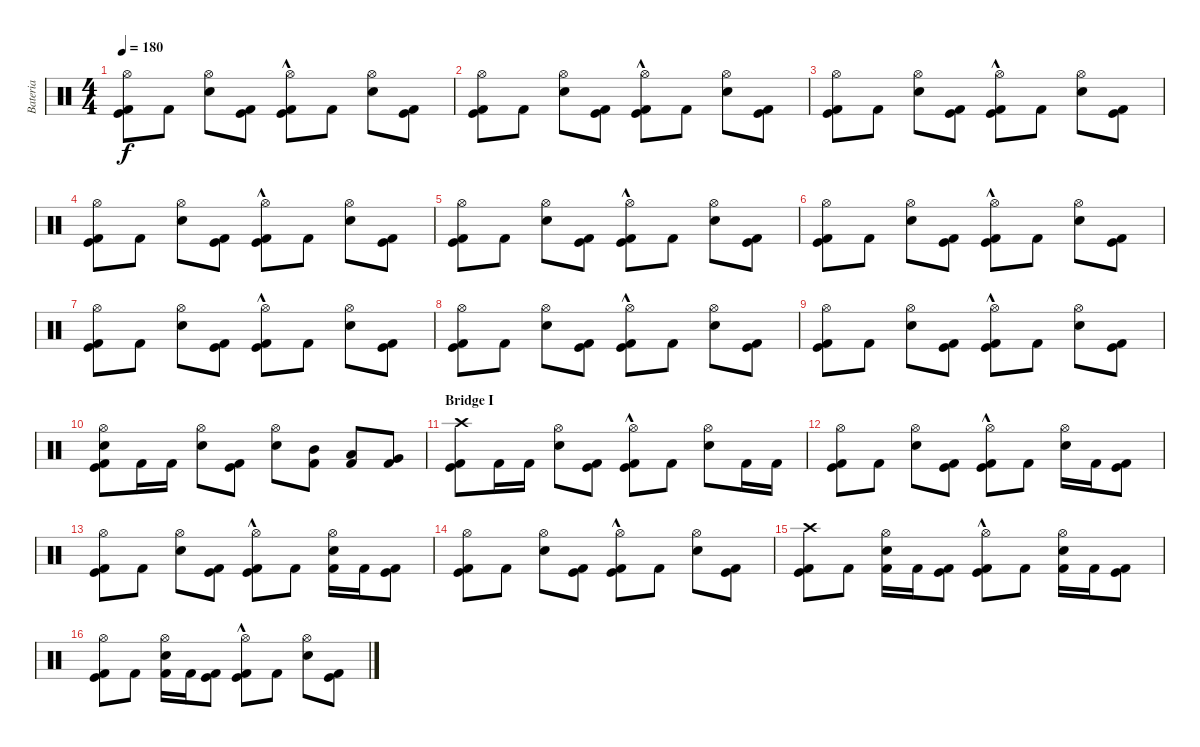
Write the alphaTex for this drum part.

\track ("Bateria" "Bateria") {instrument percussion}
\staff {score}
\articulation defaults
\ts (4 4)
\tempo 180
\clef neutral
\ks c
("Hi-Hat (open)" "Kick (hit)" "Kick (hit) 2").8{dy f} "Kick (hit) 2".8 ("Hi-Hat (open)" "Snare (hit) 2").8 ("Kick (hit)" "Kick (hit) 2").8 ("Hi-Hat (open)"{hac} "Kick (hit)" "Kick (hit) 2").8 "Kick (hit) 2".8 ("Hi-Hat (open)" "Snare (hit) 2").8 ("Kick (hit)" "Kick (hit) 2").8 |
("Hi-Hat (open)" "Kick (hit)" "Kick (hit) 2").8 "Kick (hit) 2".8 ("Hi-Hat (open)" "Snare (hit) 2").8 ("Kick (hit)" "Kick (hit) 2").8 ("Hi-Hat (open)"{hac} "Kick (hit)" "Kick (hit) 2").8 "Kick (hit) 2".8 ("Hi-Hat (open)" "Snare (hit) 2").8 ("Kick (hit)" "Kick (hit) 2").8 |
("Hi-Hat (open)" "Kick (hit)" "Kick (hit) 2").8 "Kick (hit) 2".8 ("Hi-Hat (open)" "Snare (hit) 2").8 ("Kick (hit)" "Kick (hit) 2").8 ("Hi-Hat (open)"{hac} "Kick (hit)" "Kick (hit) 2").8 "Kick (hit) 2".8 ("Hi-Hat (open)" "Snare (hit) 2").8 ("Kick (hit)" "Kick (hit) 2").8 |
("Hi-Hat (open)" "Kick (hit)" "Kick (hit) 2").8 "Kick (hit) 2".8 ("Hi-Hat (open)" "Snare (hit) 2").8 ("Kick (hit)" "Kick (hit) 2").8 ("Hi-Hat (open)"{hac} "Kick (hit)" "Kick (hit) 2").8 "Kick (hit) 2".8 ("Hi-Hat (open)" "Snare (hit) 2").8 ("Kick (hit)" "Kick (hit) 2").8 |
("Hi-Hat (open)" "Kick (hit)" "Kick (hit) 2").8 "Kick (hit) 2".8 ("Hi-Hat (open)" "Snare (hit) 2").8 ("Kick (hit)" "Kick (hit) 2").8 ("Hi-Hat (open)"{hac} "Kick (hit)" "Kick (hit) 2").8 "Kick (hit) 2".8 ("Hi-Hat (open)" "Snare (hit) 2").8 ("Kick (hit)" "Kick (hit) 2").8 |
("Hi-Hat (open)" "Kick (hit)" "Kick (hit) 2").8 "Kick (hit) 2".8 ("Hi-Hat (open)" "Snare (hit) 2").8 ("Kick (hit)" "Kick (hit) 2").8 ("Hi-Hat (open)"{hac} "Kick (hit)" "Kick (hit) 2").8 "Kick (hit) 2".8 ("Hi-Hat (open)" "Snare (hit) 2").8 ("Kick (hit)" "Kick (hit) 2").8 |
("Hi-Hat (open)" "Kick (hit)" "Kick (hit) 2").8 "Kick (hit) 2".8 ("Hi-Hat (open)" "Snare (hit) 2").8 ("Kick (hit)" "Kick (hit) 2").8 ("Hi-Hat (open)"{hac} "Kick (hit)" "Kick (hit) 2").8 "Kick (hit) 2".8 ("Hi-Hat (open)" "Snare (hit) 2").8 ("Kick (hit)" "Kick (hit) 2").8 |
("Hi-Hat (open)" "Kick (hit)" "Kick (hit) 2").8 "Kick (hit) 2".8 ("Hi-Hat (open)" "Snare (hit) 2").8 ("Kick (hit)" "Kick (hit) 2").8 ("Hi-Hat (open)"{hac} "Kick (hit)" "Kick (hit) 2").8 "Kick (hit) 2".8 ("Hi-Hat (open)" "Snare (hit) 2").8 ("Kick (hit)" "Kick (hit) 2").8 |
("Hi-Hat (open)" "Kick (hit)" "Kick (hit) 2").8 "Kick (hit) 2".8 ("Hi-Hat (open)" "Snare (hit) 2").8 ("Kick (hit)" "Kick (hit) 2").8 ("Hi-Hat (open)"{hac} "Kick (hit)" "Kick (hit) 2").8 "Kick (hit) 2".8 ("Hi-Hat (open)" "Snare (hit) 2").8 ("Kick (hit)" "Kick (hit) 2").8 |
("Hi-Hat (open)" "Electric Snare (hit)" "Kick (hit)" "Kick (hit) 2").8 "Kick (hit) 2".16 "Kick (hit) 2".16 ("Hi-Hat (open)" "Electric Snare (hit)").8 ("Kick (hit)" "Kick (hit) 2").8 ("Hi-Hat (open)" "Snare (hit) 2").8 ("Mid Tom (hit)" "Kick (hit) 2").8 ("Low Tom (hit)" "Kick (hit) 2").8 ("Very Low Tom (hit)" "Kick (hit) 2").8 |
\section ("" "Bridge I")
("Crash high (hit)" "Kick (hit)" "Kick (hit) 2").8 "Kick (hit) 2".16 "Kick (hit) 2".16 ("Hi-Hat (open)" "Snare (hit) 2").8 ("Kick (hit)" "Kick (hit) 2").8 ("Hi-Hat (open)"{hac} "Kick (hit)" "Kick (hit) 2").8 "Kick (hit) 2".8 ("Hi-Hat (open)" "Snare (hit) 2").8 "Kick (hit) 2".16 "Kick (hit) 2".16 |
("Hi-Hat (open)" "Kick (hit)" "Kick (hit) 2").8 "Kick (hit) 2".8 ("Hi-Hat (open)" "Snare (hit) 2").8 ("Kick (hit)" "Kick (hit) 2").8 ("Hi-Hat (open)"{hac} "Kick (hit)" "Kick (hit) 2").8 "Kick (hit) 2".8 ("Hi-Hat (open)" "Snare (hit) 2").16 "Kick (hit) 2".16 ("Kick (hit)" "Kick (hit) 2").8 |
("Hi-Hat (open)" "Kick (hit)" "Kick (hit) 2").8 "Kick (hit) 2".8 ("Hi-Hat (open)" "Snare (hit) 2").8 ("Kick (hit)" "Kick (hit) 2").8 ("Hi-Hat (open)"{hac} "Kick (hit)" "Kick (hit) 2").8 "Kick (hit) 2".8 ("Hi-Hat (open)" "Snare (hit) 2" "Kick (hit) 2").16 "Kick (hit) 2".16 ("Kick (hit)" "Kick (hit) 2").8 |
("Hi-Hat (open)" "Kick (hit)" "Kick (hit) 2").8 "Kick (hit) 2".8 ("Hi-Hat (open)" "Snare (hit) 2").8 ("Kick (hit)" "Kick (hit) 2").8 ("Hi-Hat (open)"{hac} "Kick (hit)" "Kick (hit) 2").8 "Kick (hit) 2".8 ("Hi-Hat (open)" "Snare (hit) 2").8 ("Kick (hit)" "Kick (hit) 2").8 |
("Crash high (hit)" "Kick (hit)" "Kick (hit) 2").8 "Kick (hit) 2".8 ("Hi-Hat (open)" "Snare (hit) 2" "Kick (hit) 2").16 "Kick (hit) 2".16 ("Kick (hit)" "Kick (hit) 2").8 ("Hi-Hat (open)"{hac} "Kick (hit)" "Kick (hit) 2").8 "Kick (hit) 2".8 ("Hi-Hat (open)" "Snare (hit) 2" "Kick (hit) 2").16 "Kick (hit) 2".16 ("Kick (hit)" "Kick (hit) 2").8 |
("Hi-Hat (open)" "Kick (hit)" "Kick (hit) 2").8 "Kick (hit) 2".8 ("Hi-Hat (open)" "Snare (hit) 2" "Kick (hit) 2").16 "Kick (hit) 2".16 ("Kick (hit)" "Kick (hit) 2").8 ("Hi-Hat (open)"{hac} "Kick (hit)" "Kick (hit) 2").8 "Kick (hit) 2".8 ("Hi-Hat (open)" "Snare (hit) 2").8 ("Kick (hit)" "Kick (hit) 2").8
